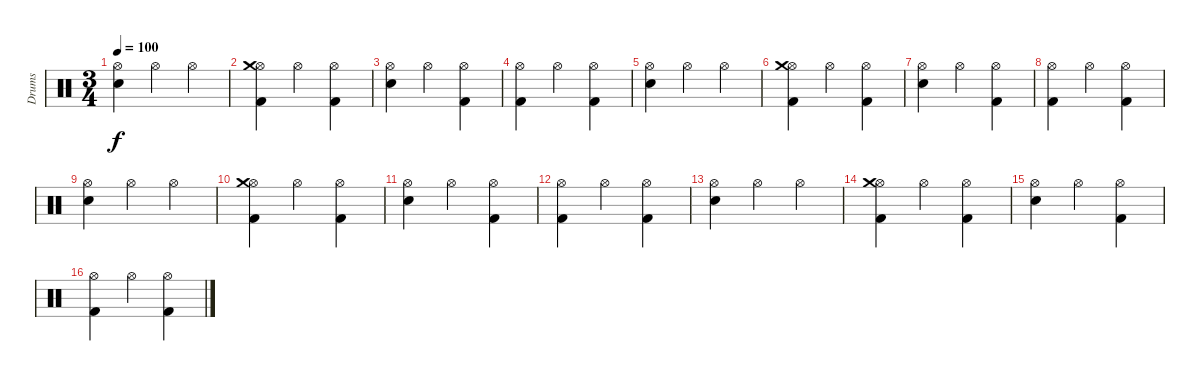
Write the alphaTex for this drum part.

\track ("Drums" "Drums") {instrument percussion}
\staff {score}
\articulation defaults
\ts (3 4)
\tempo 100
\clef neutral
\ks c
("Hi-Hat (open)" "Electric Snare (hit)").4{dy f} "Hi-Hat (open)".4 "Hi-Hat (open)".4 |
("Hi-Hat (open)" "Crash medium (hit)" "Kick (hit) 2").4 "Hi-Hat (open)".4 ("Hi-Hat (open)" "Kick (hit) 2").4 |
("Hi-Hat (open)" "Electric Snare (hit)").4 "Hi-Hat (open)".4 ("Hi-Hat (open)" "Kick (hit) 2").4 |
("Hi-Hat (open)" "Kick (hit) 2").4 "Hi-Hat (open)".4 ("Hi-Hat (open)" "Kick (hit) 2").4 |
("Hi-Hat (open)" "Electric Snare (hit)").4 "Hi-Hat (open)".4 "Hi-Hat (open)".4 |
("Hi-Hat (open)" "Crash medium (hit)" "Kick (hit) 2").4 "Hi-Hat (open)".4 ("Hi-Hat (open)" "Kick (hit) 2").4 |
("Hi-Hat (open)" "Electric Snare (hit)").4 "Hi-Hat (open)".4 ("Hi-Hat (open)" "Kick (hit) 2").4 |
("Hi-Hat (open)" "Kick (hit) 2").4 "Hi-Hat (open)".4 ("Hi-Hat (open)" "Kick (hit) 2").4 |
("Hi-Hat (open)" "Electric Snare (hit)").4 "Hi-Hat (open)".4 "Hi-Hat (open)".4 |
("Hi-Hat (open)" "Crash medium (hit)" "Kick (hit) 2").4 "Hi-Hat (open)".4 ("Hi-Hat (open)" "Kick (hit) 2").4 |
("Hi-Hat (open)" "Electric Snare (hit)").4 "Hi-Hat (open)".4 ("Hi-Hat (open)" "Kick (hit) 2").4 |
("Hi-Hat (open)" "Kick (hit) 2").4 "Hi-Hat (open)".4 ("Hi-Hat (open)" "Kick (hit) 2").4 |
("Hi-Hat (open)" "Electric Snare (hit)").4 "Hi-Hat (open)".4 "Hi-Hat (open)".4 |
("Hi-Hat (open)" "Crash medium (hit)" "Kick (hit) 2").4 "Hi-Hat (open)".4 ("Hi-Hat (open)" "Kick (hit) 2").4 |
("Hi-Hat (open)" "Electric Snare (hit)").4 "Hi-Hat (open)".4 ("Hi-Hat (open)" "Kick (hit) 2").4 |
("Hi-Hat (open)" "Kick (hit) 2").4 "Hi-Hat (open)".4 ("Hi-Hat (open)" "Kick (hit) 2").4
